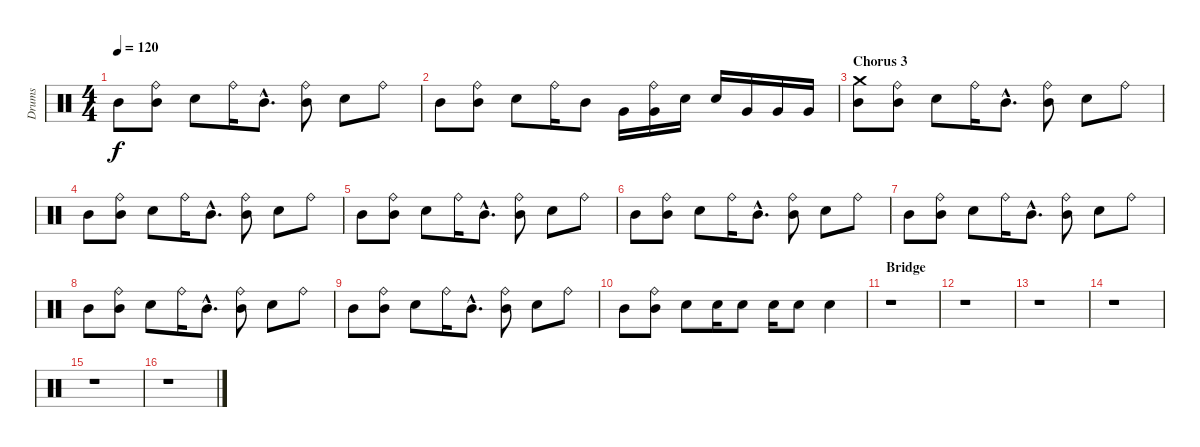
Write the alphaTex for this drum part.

\track ("Drums" "Drums") {instrument percussion}
\staff {score}
\articulation defaults
\ts (4 4)
\tempo 120
\clef neutral
\ks c "Mid Tom (hit)".8{dy f}
("Ride (bell)" "Mid Tom (hit)").8 "Electric Snare (hit)".8 "Ride (bell)".16 "Mid Tom (hit)"{hac}.8{d} ("Ride (bell)" "Mid Tom (hit)").8 "Electric Snare (hit)".8 "Ride (bell)".8 |
"Mid Tom (hit)".8 ("Ride (bell)" "Mid Tom (hit)").8 "Electric Snare (hit)".8 "Ride (bell)".16 "Mid Tom (hit)".8 "Very Low Tom (hit)".16 ("Ride (bell)" "Very Low Tom (hit)").16 "Electric Snare (hit)".16 "Electric Snare (hit)".16 "Very Low Tom (hit)".16 "Very Low Tom (hit)".16 "Very Low Tom (hit)".16 |
\section ("" "Chorus 3")
("Crash medium (hit)" "Mid Tom (hit)").8 ("Ride (bell)" "Mid Tom (hit)").8 "Electric Snare (hit)".8 "Ride (bell)".16 "Mid Tom (hit)"{hac}.8{d} ("Ride (bell)" "Mid Tom (hit)").8 "Electric Snare (hit)".8 "Ride (bell)".8 |
"Mid Tom (hit)".8 ("Ride (bell)" "Mid Tom (hit)").8 "Electric Snare (hit)".8 "Ride (bell)".16 "Mid Tom (hit)"{hac}.8{d} ("Ride (bell)" "Mid Tom (hit)").8 "Electric Snare (hit)".8 "Ride (bell)".8 |
"Mid Tom (hit)".8 ("Ride (bell)" "Mid Tom (hit)").8 "Electric Snare (hit)".8 "Ride (bell)".16 "Mid Tom (hit)"{hac}.8{d} ("Ride (bell)" "Mid Tom (hit)").8 "Electric Snare (hit)".8 "Ride (bell)".8 |
"Mid Tom (hit)".8 ("Ride (bell)" "Mid Tom (hit)").8 "Electric Snare (hit)".8 "Ride (bell)".16 "Mid Tom (hit)"{hac}.8{d} ("Ride (bell)" "Mid Tom (hit)").8 "Electric Snare (hit)".8 "Ride (bell)".8 |
"Mid Tom (hit)".8 ("Ride (bell)" "Mid Tom (hit)").8 "Electric Snare (hit)".8 "Ride (bell)".16 "Mid Tom (hit)"{hac}.8{d} ("Ride (bell)" "Mid Tom (hit)").8 "Electric Snare (hit)".8 "Ride (bell)".8 |
"Mid Tom (hit)".8 ("Ride (bell)" "Mid Tom (hit)").8 "Electric Snare (hit)".8 "Ride (bell)".16 "Mid Tom (hit)"{hac}.8{d} ("Ride (bell)" "Mid Tom (hit)").8 "Electric Snare (hit)".8 "Ride (bell)".8 |
"Mid Tom (hit)".8 ("Ride (bell)" "Mid Tom (hit)").8 "Electric Snare (hit)".8 "Ride (bell)".16 "Mid Tom (hit)"{hac}.8{d} ("Ride (bell)" "Mid Tom (hit)").8 "Electric Snare (hit)".8 "Ride (bell)".8 |
"Mid Tom (hit)".8 ("Ride (bell)" "Mid Tom (hit)").8 "Electric Snare (hit)".8 "Electric Snare (hit)".16 "Electric Snare (hit)".8 "Electric Snare (hit)".16 "Electric Snare (hit)".8 "Electric Snare (hit)".4 |
\section ("" "Bridge")
r.1 |
r.1 |
r.1 |
r.1 |
r.1 |
r.1
